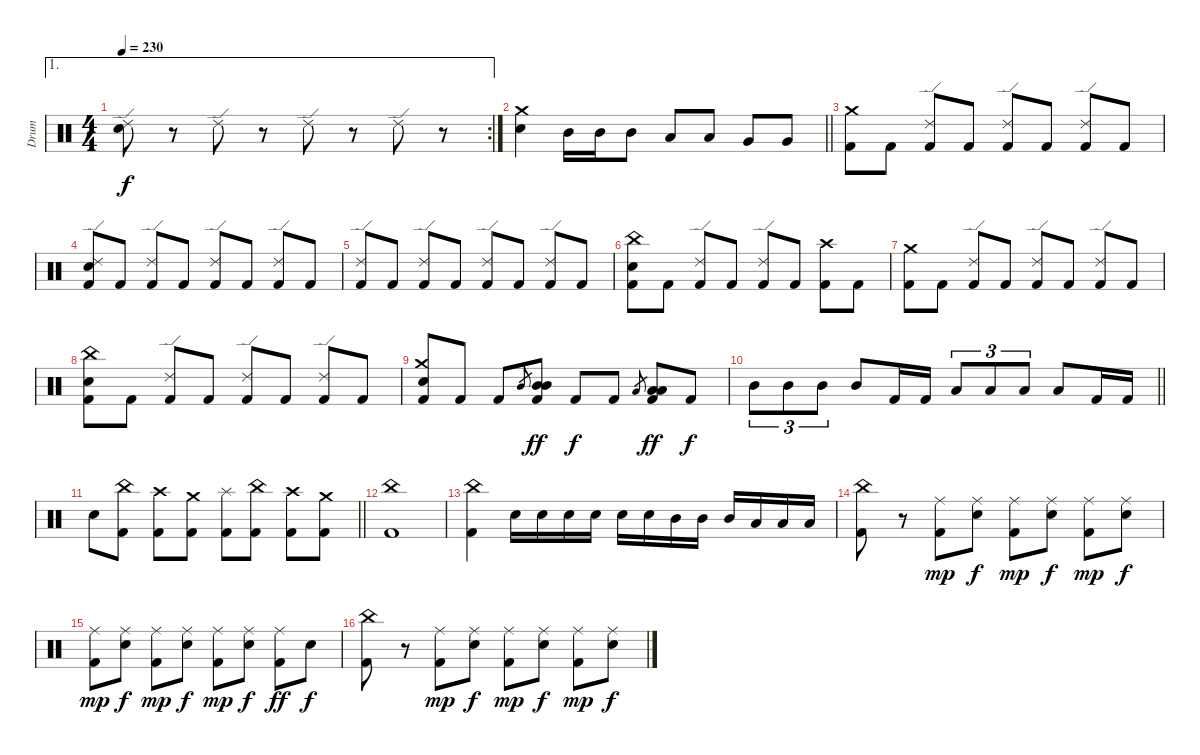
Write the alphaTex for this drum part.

\track ("Drum" "Drum") {instrument percussion}
\staff {score}
\articulation defaults
\ae 1
\rc 2
\ts (4 4)
\tempo 230
\clef neutral
\ks c
("Ride (edge) 2" "Electric Snare (hit)").8{dy f} r.8 "Ride (edge) 2".8 r.8 "Ride (edge) 2".8 r.8 "Ride (edge) 2".8 r.8 |
\barLineRight lightlight
("Crash medium (hit)" "Electric Snare (hit)").4 "Mid Tom (hit)".16 "Mid Tom (hit)".16 "Mid Tom (hit)".8 "Low Tom (hit)".8 "Low Tom (hit)".8 "Very Low Tom (hit)".8 "Very Low Tom (hit)".8 |
("Crash medium (hit)" "Kick (hit) 2").8 "Kick (hit) 2".8 ("Ride (edge) 2" "Kick (hit) 2").8 "Kick (hit) 2".8 ("Ride (edge) 2" "Kick (hit) 2").8 "Kick (hit) 2".8 ("Ride (edge) 2" "Kick (hit) 2").8 "Kick (hit) 2".8 |
("Ride (edge) 2" "Electric Snare (hit)" "Kick (hit) 2").8 "Kick (hit) 2".8 ("Ride (edge) 2" "Kick (hit) 2").8 "Kick (hit) 2".8 ("Ride (edge) 2" "Kick (hit) 2").8 "Kick (hit) 2".8 ("Ride (edge) 2" "Kick (hit) 2").8 "Kick (hit) 2".8 |
("Ride (edge) 2" "Kick (hit) 2").8 "Kick (hit) 2".8 ("Ride (edge) 2" "Kick (hit) 2").8 "Kick (hit) 2".8 ("Ride (edge) 2" "Kick (hit) 2").8 "Kick (hit) 2".8 ("Ride (edge) 2" "Kick (hit) 2").8 "Kick (hit) 2".8 |
("China (hit)" "Electric Snare (hit)" "Kick (hit) 2").8 "Kick (hit) 2".8 ("Ride (edge) 2" "Kick (hit) 2").8 "Kick (hit) 2".8 ("Ride (edge) 2" "Kick (hit) 2").8 "Kick (hit) 2".8 ("Crash high (hit)" "Kick (hit) 2").8 "Kick (hit) 2".8 |
("Crash medium (hit)" "Kick (hit) 2").8 "Kick (hit) 2".8 ("Ride (edge) 2" "Kick (hit) 2").8 "Kick (hit) 2".8 ("Ride (edge) 2" "Kick (hit) 2").8 "Kick (hit) 2".8 ("Ride (edge) 2" "Kick (hit) 2").8 "Kick (hit) 2".8 |
("China (hit)" "Electric Snare (hit)" "Kick (hit) 2").8 "Kick (hit) 2".8 ("Ride (edge) 2" "Kick (hit) 2").8 "Kick (hit) 2".8 ("Ride (edge) 2" "Kick (hit) 2").8 "Kick (hit) 2".8 ("Ride (edge) 2" "Kick (hit) 2").8 "Kick (hit) 2".8 |
("Crash medium (hit)" "Electric Snare (hit)" "Kick (hit) 2").8 "Kick (hit) 2".8 "Kick (hit) 2".8 "Mid Tom (hit)".8{gr} ("Mid Tom (hit)" "Mid Tom (hit)" "Kick (hit) 2").8{dy ff} "Kick (hit) 2".8{dy f} "Kick (hit) 2".8 "Low Tom (hit)".8{gr} ("Low Tom (hit)" "Low Tom (hit)" "Kick (hit) 2").8{dy ff} "Kick (hit) 2".8{dy f} |
\barLineRight lightlight "Mid Tom (hit)".8{tu (3 2)} "Mid Tom (hit)".8{tu (3 2)} "Mid Tom (hit)".8{tu (3 2)} "Mid Tom (hit)".8 "Kick (hit) 2".16 "Kick (hit) 2".16 "Low Tom (hit)".8{tu (3 2)} "Low Tom (hit)".8{tu (3 2)} "Low Tom (hit)".8{tu (3 2)} "Low Tom (hit)".8 "Kick (hit) 2".16 "Kick (hit) 2".16
|
\barLineRight lightlight "Electric Snare (hit)".8
("China (hit)" "Kick (hit) 2").8 ("Crash high (hit)" "Kick (hit) 2").8 ("Crash medium (hit)" "Kick (hit) 2").8 ("Splash (hit)" "Kick (hit) 2").8 ("China (hit)" "Kick (hit) 2").8 ("Crash high (hit)" "Kick (hit) 2").8 ("Crash medium (hit)" "Kick (hit) 2").8 |
("China (hit)" "Kick (hit) 2").1 |
("China (hit)" "Kick (hit) 2").4 "Electric Snare (hit)".16 "Electric Snare (hit)".16 "Electric Snare (hit)".16 "Electric Snare (hit)".16 "Electric Snare (hit)".16 "Electric Snare (hit)".16 "Mid Tom (hit)".16 "Mid Tom (hit)".16 "Mid Tom (hit)".16 "Low Tom (hit)".16 "Low Tom (hit)".16 "Low Tom (hit)".16 |
("China (hit)" "Kick (hit) 2").8 r.8 ("Ride (middle)" "Kick (hit) 2").8{dy mp} ("Ride (middle)" "Electric Snare (hit)").8{dy f} ("Ride (middle)" "Kick (hit) 2").8{dy mp} ("Ride (middle)" "Electric Snare (hit)").8{dy f} ("Ride (middle)" "Kick (hit) 2").8{dy mp} ("Ride (middle)" "Electric Snare (hit)").8{dy f} |
("Ride (middle)" "Kick (hit) 2").8{dy mp} ("Ride (middle)" "Electric Snare (hit)").8{dy f} ("Ride (middle)" "Kick (hit) 2").8{dy mp} ("Ride (middle)" "Electric Snare (hit)").8{dy f} ("Ride (middle)" "Kick (hit) 2").8{dy mp} ("Ride (middle)" "Electric Snare (hit)").8{dy f} ("Ride (middle)" "Kick (hit) 2").8{dy ff} "Electric Snare (hit)".8{dy f} |
("China (hit)" "Kick (hit) 2").8 r.8 ("Ride (middle)" "Kick (hit) 2").8{dy mp} ("Ride (middle)" "Electric Snare (hit)").8{dy f} ("Ride (middle)" "Kick (hit) 2").8{dy mp} ("Ride (middle)" "Electric Snare (hit)").8{dy f} ("Ride (middle)" "Kick (hit) 2").8{dy mp} ("Ride (middle)" "Electric Snare (hit)").8{dy f}
